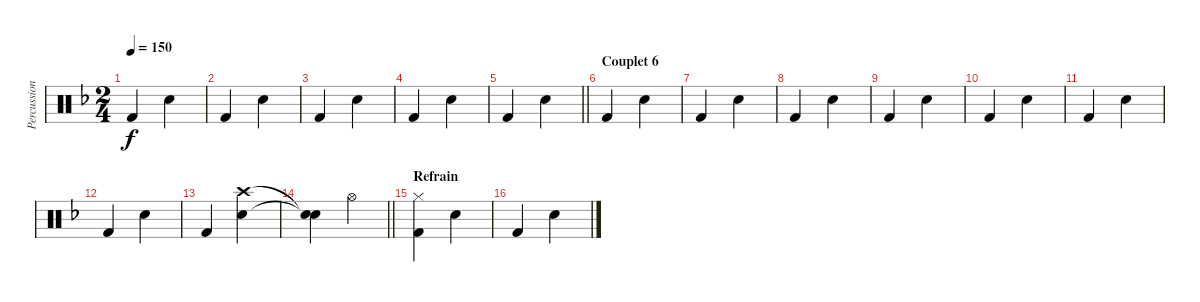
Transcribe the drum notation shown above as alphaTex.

\track ("Percussions" "Percussion") {instrument percussion}
\staff {score}
\articulation defaults
\ts (2 4)
\tempo 150
\clef neutral
\ks f "Kick (hit) 2".4{dy f} "Snare (hit) 2".4
|
"Kick (hit) 2".4 "Snare (hit) 2".4 |
"Kick (hit) 2".4 "Snare (hit) 2".4 |
"Kick (hit) 2".4 "Snare (hit) 2".4 |
\barLineRight lightlight "Kick (hit) 2".4 "Snare (hit) 2".4
|
\section ("" "Couplet 6")
"Kick (hit) 2".4 "Snare (hit) 2".4 |
"Kick (hit) 2".4 "Snare (hit) 2".4 |
"Kick (hit) 2".4 "Snare (hit) 2".4 |
"Kick (hit) 2".4 "Snare (hit) 2".4 |
"Kick (hit) 2".4 "Snare (hit) 2".4 |
"Kick (hit) 2".4 "Snare (hit) 2".4 |
"Kick (hit) 2".4 "Snare (hit) 2".4 |
"Kick (hit) 2".4 ("Crash high (hit)" "Snare (hit) 2").4 |
\barLineRight lightlight
("Snare (hit)"{t} "Snare (hit)"{t}).4 "Hi-Hat (open)".4 |
\section ("" "Refrain")
("Hi-Hat (closed)" "Kick (hit) 2").4 "Snare (hit) 2".4 |
"Kick (hit) 2".4 "Snare (hit) 2".4
